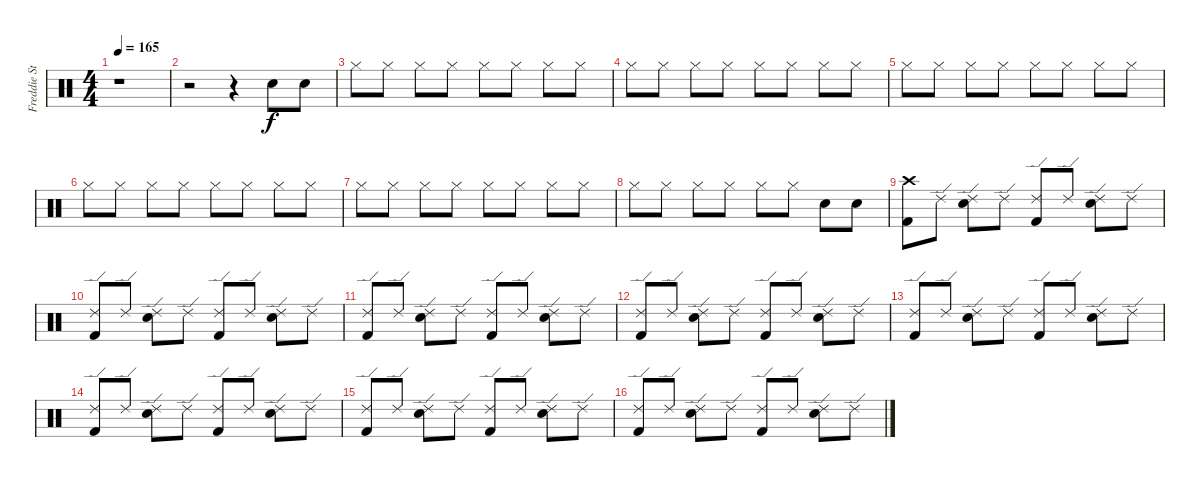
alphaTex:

\track ("Freddie Strauks" "Freddie St") {instrument percussion}
\staff {score}
\articulation defaults
\ts (4 4)
\tempo 165
\clef neutral
\ks c
r.1{dy f} |
r.2 r.4 "Snare (hit) 2".8 "Snare (hit) 2".8 |
"Hi-Hat (closed)".8 "Hi-Hat (closed)".8 "Hi-Hat (closed)".8 "Hi-Hat (closed)".8 "Hi-Hat (closed)".8 "Hi-Hat (closed)".8 "Hi-Hat (closed)".8 "Hi-Hat (closed)".8 |
"Hi-Hat (closed)".8 "Hi-Hat (closed)".8 "Hi-Hat (closed)".8 "Hi-Hat (closed)".8 "Hi-Hat (closed)".8 "Hi-Hat (closed)".8 "Hi-Hat (closed)".8 "Hi-Hat (closed)".8 |
"Hi-Hat (closed)".8 "Hi-Hat (closed)".8 "Hi-Hat (closed)".8 "Hi-Hat (closed)".8 "Hi-Hat (closed)".8 "Hi-Hat (closed)".8 "Hi-Hat (closed)".8 "Hi-Hat (closed)".8 |
"Hi-Hat (closed)".8 "Hi-Hat (closed)".8 "Hi-Hat (closed)".8 "Hi-Hat (closed)".8 "Hi-Hat (closed)".8 "Hi-Hat (closed)".8 "Hi-Hat (closed)".8 "Hi-Hat (closed)".8 |
"Hi-Hat (closed)".8 "Hi-Hat (closed)".8 "Hi-Hat (closed)".8 "Hi-Hat (closed)".8 "Hi-Hat (closed)".8 "Hi-Hat (closed)".8 "Hi-Hat (closed)".8 "Hi-Hat (closed)".8 |
"Hi-Hat (closed)".8 "Hi-Hat (closed)".8 "Hi-Hat (closed)".8 "Hi-Hat (closed)".8 "Hi-Hat (closed)".8 "Hi-Hat (closed)".8 "Snare (hit) 2".8{volume 16} "Snare (hit) 2".8 |
("Crash high (hit)" "Kick (hit) 2").8{volume 13} "Ride (edge) 2".8 ("Ride (edge) 2" "Snare (hit) 2").8 "Ride (edge) 2".8 ("Ride (edge) 2" "Kick (hit) 2").8 "Ride (edge) 2".8 ("Ride (edge) 2" "Snare (hit) 2").8 "Ride (edge) 2".8 |
("Ride (edge) 2" "Kick (hit) 2").8 "Ride (edge) 2".8 ("Ride (edge) 2" "Snare (hit) 2").8 "Ride (edge) 2".8 ("Ride (edge) 2" "Kick (hit) 2").8 "Ride (edge) 2".8 ("Ride (edge) 2" "Snare (hit) 2").8 "Ride (edge) 2".8 |
("Ride (edge) 2" "Kick (hit) 2").8 "Ride (edge) 2".8 ("Ride (edge) 2" "Snare (hit) 2").8 "Ride (edge) 2".8 ("Ride (edge) 2" "Kick (hit) 2").8 "Ride (edge) 2".8 ("Ride (edge) 2" "Snare (hit) 2").8 "Ride (edge) 2".8 |
("Ride (edge) 2" "Kick (hit) 2").8 "Ride (edge) 2".8 ("Ride (edge) 2" "Snare (hit) 2").8 "Ride (edge) 2".8 ("Ride (edge) 2" "Kick (hit) 2").8 "Ride (edge) 2".8 ("Ride (edge) 2" "Snare (hit) 2").8 "Ride (edge) 2".8 |
("Ride (edge) 2" "Kick (hit) 2").8 "Ride (edge) 2".8 ("Ride (edge) 2" "Snare (hit) 2").8 "Ride (edge) 2".8 ("Ride (edge) 2" "Kick (hit) 2").8 "Ride (edge) 2".8 ("Ride (edge) 2" "Snare (hit) 2").8 "Ride (edge) 2".8 |
("Ride (edge) 2" "Kick (hit) 2").8 "Ride (edge) 2".8 ("Ride (edge) 2" "Snare (hit) 2").8 "Ride (edge) 2".8 ("Ride (edge) 2" "Kick (hit) 2").8 "Ride (edge) 2".8 ("Ride (edge) 2" "Snare (hit) 2").8 "Ride (edge) 2".8 |
("Ride (edge) 2" "Kick (hit) 2").8 "Ride (edge) 2".8 ("Ride (edge) 2" "Snare (hit) 2").8 "Ride (edge) 2".8 ("Ride (edge) 2" "Kick (hit) 2").8 "Ride (edge) 2".8 ("Ride (edge) 2" "Snare (hit) 2").8 "Ride (edge) 2".8 |
("Ride (edge) 2" "Kick (hit) 2").8 "Ride (edge) 2".8 ("Ride (edge) 2" "Snare (hit) 2").8 "Ride (edge) 2".8 ("Ride (edge) 2" "Kick (hit) 2").8 "Ride (edge) 2".8 ("Ride (edge) 2" "Snare (hit) 2").8 "Ride (edge) 2".8
